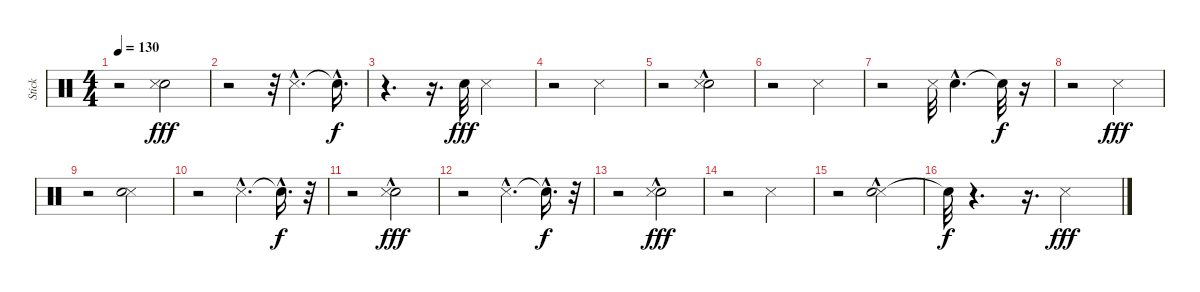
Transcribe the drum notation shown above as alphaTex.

\track ("Stick" "Stick") {instrument percussion}
\staff {score}
\articulation defaults
\ts (4 4)
\tempo 130
\clef neutral
\ks c
r.2{dy fff} ("Snare (hit) 2" "Snare (side stick) 3").2 |
r.2 r.32 "Snare (side stick) 3"{hac}.4{d} "Snare (hit)"{hac t}.16{d dy f} |
r.4{d} r.16{d} "Snare (hit) 2".32{dy fff} "Snare (side stick) 3".2 |
r.2 "Snare (side stick) 3".2 |
r.2 ("Snare (hit) 2"{hac} "Snare (side stick) 3").2 |
r.2 "Snare (side stick) 3".2 |
r.2 "Snare (side stick) 3".32 "Snare (hit) 2"{hac}.4{d} "Snare (hit)"{t}.32{dy f} r.16 |
r.2 "Snare (side stick) 3".2{dy fff} |
r.2 ("Snare (side stick) 3" "Snare (hit) 2").2 |
r.2 "Snare (side stick) 3"{hac}.4{d} "Snare (hit)"{hac t}.16{d dy f} r.32 |
r.2 ("Snare (hit) 2"{hac} "Snare (side stick) 3").2{dy fff} |
r.2 "Snare (side stick) 3"{hac}.4{d} "Snare (hit)"{hac t}.16{d dy f} r.32 |
r.2 ("Snare (hit) 2"{hac} "Snare (side stick) 3").2{dy fff} |
r.2 "Snare (side stick) 3".2 |
r.2 ("Snare (side stick) 3" "Snare (hit) 2"{hac}).2 |
"Snare (hit)"{t}.32{dy f} r.4{d} r.16{d} "Snare (side stick) 3".2{dy fff}
